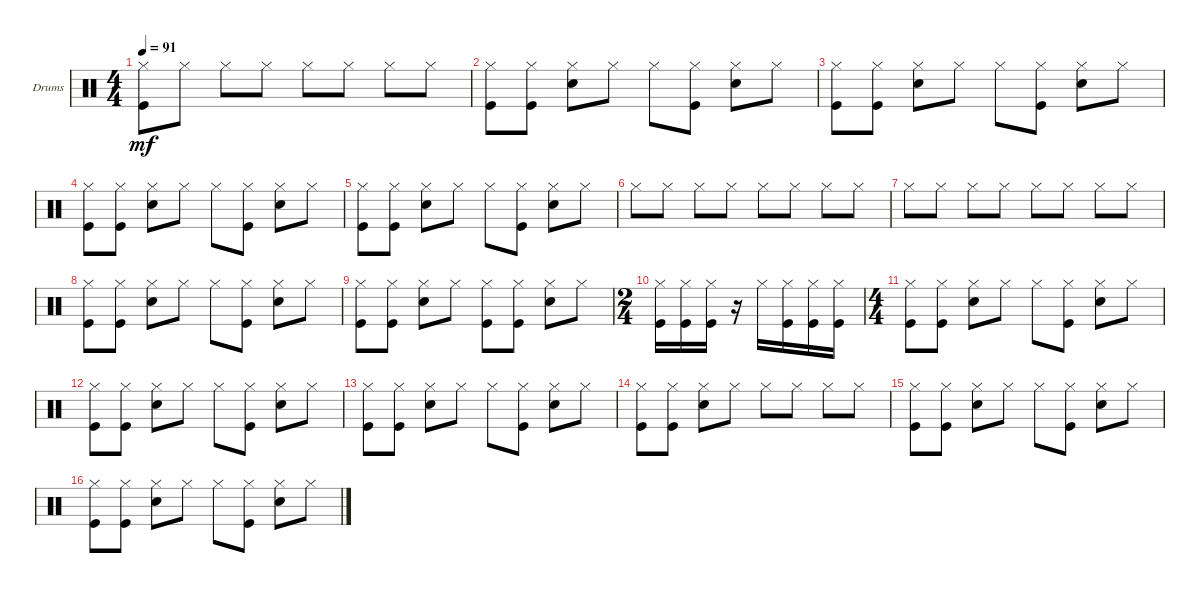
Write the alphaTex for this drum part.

\defaultSystemsLayout 4
\bracketExtendMode groupsimilarinstruments
\firstSystemTrackNameOrientation horizontal
\otherSystemsTrackNameOrientation horizontal
\track ("Drumkit" "Drums") {instrument percussion}
\staff {score}
\articulation defaults
\ts (4 4)
\tempo 91
\clef neutral
\ks c
("Kick (hit)" "Hi-Hat (closed)").8{dy mf} "Hi-Hat (closed)".8 "Hi-Hat (closed)".8 "Hi-Hat (closed)".8 "Hi-Hat (closed)".8 "Hi-Hat (closed)".8 "Hi-Hat (closed)".8 "Hi-Hat (closed)".8 |
("Kick (hit)" "Hi-Hat (closed)").8 ("Kick (hit)" "Hi-Hat (closed)").8 ("Hi-Hat (closed)" "Snare (hit) 2").8 "Hi-Hat (closed)".8 "Hi-Hat (closed)".8 ("Kick (hit)" "Hi-Hat (closed)").8 ("Hi-Hat (closed)" "Snare (hit) 2").8 "Hi-Hat (closed)".8 |
("Kick (hit)" "Hi-Hat (closed)").8 ("Kick (hit)" "Hi-Hat (closed)").8 ("Hi-Hat (closed)" "Snare (hit) 2").8 "Hi-Hat (closed)".8 "Hi-Hat (closed)".8 ("Kick (hit)" "Hi-Hat (closed)").8 ("Hi-Hat (closed)" "Snare (hit) 2").8 "Hi-Hat (closed)".8 |
("Kick (hit)" "Hi-Hat (closed)").8 ("Kick (hit)" "Hi-Hat (closed)").8 ("Hi-Hat (closed)" "Snare (hit) 2").8 "Hi-Hat (closed)".8 "Hi-Hat (closed)".8 ("Kick (hit)" "Hi-Hat (closed)").8 ("Hi-Hat (closed)" "Snare (hit) 2").8 "Hi-Hat (closed)".8 |
("Kick (hit)" "Hi-Hat (closed)").8 ("Kick (hit)" "Hi-Hat (closed)").8 ("Hi-Hat (closed)" "Snare (hit) 2").8 "Hi-Hat (closed)".8 "Hi-Hat (closed)".8 ("Kick (hit)" "Hi-Hat (closed)").8 ("Hi-Hat (closed)" "Snare (hit) 2").8 "Hi-Hat (closed)".8 |
"Hi-Hat (closed)".8 "Hi-Hat (closed)".8 "Hi-Hat (closed)".8 "Hi-Hat (closed)".8 "Hi-Hat (closed)".8 "Hi-Hat (closed)".8 "Hi-Hat (closed)".8 "Hi-Hat (closed)".8 |
"Hi-Hat (closed)".8 "Hi-Hat (closed)".8 "Hi-Hat (closed)".8 "Hi-Hat (closed)".8 "Hi-Hat (closed)".8 "Hi-Hat (closed)".8 "Hi-Hat (closed)".8 "Hi-Hat (closed)".8 |
("Kick (hit)" "Hi-Hat (closed)").8 ("Kick (hit)" "Hi-Hat (closed)").8 ("Hi-Hat (closed)" "Snare (hit) 2").8 "Hi-Hat (closed)".8 "Hi-Hat (closed)".8 ("Kick (hit)" "Hi-Hat (closed)").8 ("Hi-Hat (closed)" "Snare (hit) 2").8 "Hi-Hat (closed)".8 |
("Kick (hit)" "Hi-Hat (closed)").8 ("Kick (hit)" "Hi-Hat (closed)").8 ("Hi-Hat (closed)" "Snare (hit) 2").8 "Hi-Hat (closed)".8 ("Hi-Hat (closed)" "Kick (hit)").8 ("Kick (hit)" "Hi-Hat (closed)").8 ("Hi-Hat (closed)" "Snare (hit) 2").8 "Hi-Hat (closed)".8 |
\ts (2 4)
("Kick (hit)" "Hi-Hat (closed)").16 ("Kick (hit)" "Hi-Hat (closed)").16 ("Kick (hit)" "Hi-Hat (closed)").16 r.16 "Hi-Hat (closed)".16 ("Kick (hit)" "Hi-Hat (closed)").16 ("Kick (hit)" "Hi-Hat (closed)").16 ("Kick (hit)" "Hi-Hat (closed)").16 |
\ts (4 4)
("Kick (hit)" "Hi-Hat (closed)").8 ("Kick (hit)" "Hi-Hat (closed)").8 ("Hi-Hat (closed)" "Snare (hit) 2").8 "Hi-Hat (closed)".8 "Hi-Hat (closed)".8 ("Kick (hit)" "Hi-Hat (closed)").8 ("Hi-Hat (closed)" "Snare (hit) 2").8 "Hi-Hat (closed)".8 |
("Kick (hit)" "Hi-Hat (closed)").8 ("Kick (hit)" "Hi-Hat (closed)").8 ("Hi-Hat (closed)" "Snare (hit) 2").8 "Hi-Hat (closed)".8 "Hi-Hat (closed)".8 ("Kick (hit)" "Hi-Hat (closed)").8 ("Hi-Hat (closed)" "Snare (hit) 2").8 "Hi-Hat (closed)".8 |
("Kick (hit)" "Hi-Hat (closed)").8 ("Kick (hit)" "Hi-Hat (closed)").8 ("Hi-Hat (closed)" "Snare (hit) 2").8 "Hi-Hat (closed)".8 "Hi-Hat (closed)".8 ("Kick (hit)" "Hi-Hat (closed)").8 ("Hi-Hat (closed)" "Snare (hit) 2").8 "Hi-Hat (closed)".8 |
("Kick (hit)" "Hi-Hat (closed)").8 ("Kick (hit)" "Hi-Hat (closed)").8 ("Hi-Hat (closed)" "Snare (hit) 2").8 "Hi-Hat (closed)".8 "Hi-Hat (closed)".8 "Hi-Hat (closed)".8 "Hi-Hat (closed)".8 "Hi-Hat (closed)".8 |
("Kick (hit)" "Hi-Hat (closed)").8 ("Kick (hit)" "Hi-Hat (closed)").8 ("Hi-Hat (closed)" "Snare (hit) 2").8 "Hi-Hat (closed)".8 "Hi-Hat (closed)".8 ("Kick (hit)" "Hi-Hat (closed)").8 ("Hi-Hat (closed)" "Snare (hit) 2").8 "Hi-Hat (closed)".8 |
("Kick (hit)" "Hi-Hat (closed)").8 ("Kick (hit)" "Hi-Hat (closed)").8 ("Hi-Hat (closed)" "Snare (hit) 2").8 "Hi-Hat (closed)".8 "Hi-Hat (closed)".8 ("Kick (hit)" "Hi-Hat (closed)").8 ("Hi-Hat (closed)" "Snare (hit) 2").8 "Hi-Hat (closed)".8
